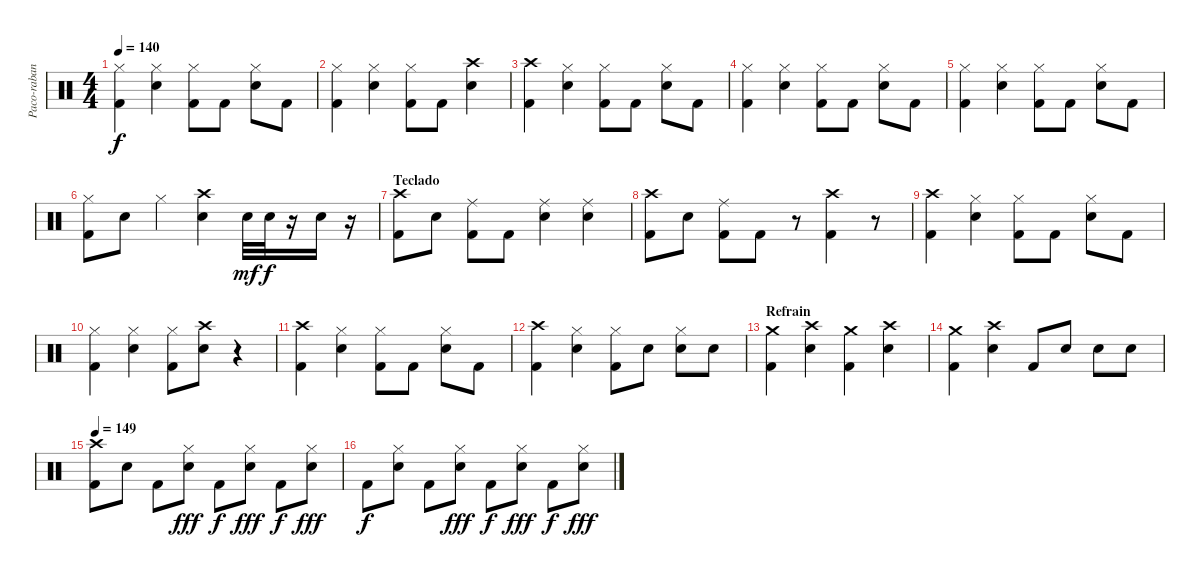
\track ("Paco-rabane" "Paco-raban") {instrument percussion}
\staff {score}
\articulation defaults
\ts (4 4)
\tempo 140
\clef neutral
\ks c
("Hi-Hat (closed)" "Kick (hit) 2").4{dy f} ("Hi-Hat (closed)" "Snare (hit) 2").4 ("Hi-Hat (closed)" "Kick (hit) 2").8 "Kick (hit) 2".8 ("Hi-Hat (closed)" "Snare (hit) 2").8 "Kick (hit) 2".8 |
("Hi-Hat (closed)" "Kick (hit) 2").4 ("Hi-Hat (closed)" "Snare (hit) 2").4 ("Hi-Hat (closed)" "Kick (hit) 2").8 "Kick (hit) 2".8 ("Crash high (hit)" "Snare (hit) 2").4 |
("Crash high (hit)" "Kick (hit) 2").4 ("Hi-Hat (closed)" "Snare (hit) 2").4 ("Hi-Hat (closed)" "Kick (hit) 2").8 "Kick (hit) 2".8 ("Hi-Hat (closed)" "Snare (hit) 2").8 "Kick (hit) 2".8 |
("Hi-Hat (closed)" "Kick (hit) 2").4 ("Hi-Hat (closed)" "Snare (hit) 2").4 ("Hi-Hat (closed)" "Kick (hit) 2").8 "Kick (hit) 2".8 ("Hi-Hat (closed)" "Snare (hit) 2").8 "Kick (hit) 2".8 |
("Hi-Hat (closed)" "Kick (hit) 2").4 ("Hi-Hat (closed)" "Snare (hit) 2").4 ("Hi-Hat (closed)" "Kick (hit) 2").8 "Kick (hit) 2".8 ("Hi-Hat (closed)" "Snare (hit) 2").8 "Kick (hit) 2".8 |
("Hi-Hat (closed)" "Kick (hit) 2").8 "Snare (hit) 2".8 "Hi-Hat (closed)".4 ("Crash high (hit)" "Snare (hit) 2").4 "Snare (hit) 2".32{dy mf} "Snare (hit) 2".32{dy f} r.16 "Snare (hit) 2".16 r.16 |
\section ("" "Teclado")
("Crash high (hit)" "Kick (hit) 2").8 "Snare (hit) 2".8 ("Ride (middle)" "Kick (hit) 2").8 "Kick (hit) 2".8 ("Ride (middle)" "Snare (hit) 2").4 ("Ride (middle)" "Snare (hit) 2").4 |
("Crash high (hit)" "Kick (hit) 2").8 "Snare (hit) 2".8 ("Ride (middle)" "Kick (hit) 2").8 "Kick (hit) 2".8 r.8 ("Crash high (hit)" "Kick (hit) 2").4 r.8 |
("Crash high (hit)" "Kick (hit) 2").4 ("Hi-Hat (closed)" "Snare (hit) 2").4 ("Hi-Hat (closed)" "Kick (hit) 2").8 "Kick (hit) 2".8 ("Hi-Hat (closed)" "Snare (hit) 2").8 "Kick (hit) 2".8 |
("Hi-Hat (closed)" "Kick (hit) 2").4 ("Hi-Hat (closed)" "Snare (hit) 2").4 ("Hi-Hat (closed)" "Kick (hit) 2").8 ("Crash high (hit)" "Snare (hit) 2").8 r.4 |
("Crash high (hit)" "Kick (hit) 2").4 ("Hi-Hat (closed)" "Snare (hit) 2").4 ("Hi-Hat (closed)" "Kick (hit) 2").8 "Kick (hit) 2".8 ("Hi-Hat (closed)" "Snare (hit) 2").8 "Kick (hit) 2".8 |
("Crash high (hit)" "Kick (hit) 2").4 ("Hi-Hat (closed)" "Snare (hit) 2").4 ("Hi-Hat (closed)" "Kick (hit) 2").8 "Snare (hit) 2".8 ("Hi-Hat (closed)" "Snare (hit) 2").8 "Snare (hit) 2".8 |
\section ("" "Refrain")
("Crash medium (hit)" "Kick (hit) 2").4 ("Crash high (hit)" "Snare (hit) 2").4 ("Crash medium (hit)" "Kick (hit) 2").4 ("Crash high (hit)" "Snare (hit) 2").4 |
("Crash medium (hit)" "Kick (hit) 2").4 ("Crash high (hit)" "Snare (hit) 2").4 "Kick (hit) 2".8 "Snare (hit) 2".8 "Snare (hit) 2".8 "Snare (hit) 2".8 |
\tempo 149
("Crash high (hit)" "Kick (hit) 2").8 "Snare (hit) 2".8 "Kick (hit) 2".8 ("Hi-Hat (closed)" "Snare (hit) 2").8{dy fff} "Kick (hit) 2".8{dy f} ("Hi-Hat (closed)" "Snare (hit) 2").8{dy fff} "Kick (hit) 2".8{dy f} ("Hi-Hat (closed)" "Snare (hit) 2").8{dy fff} |
"Kick (hit) 2".8{dy f} ("Hi-Hat (closed)" "Snare (hit) 2").8 "Kick (hit) 2".8 ("Hi-Hat (closed)" "Snare (hit) 2").8{dy fff} "Kick (hit) 2".8{dy f} ("Hi-Hat (closed)" "Snare (hit) 2").8{dy fff} "Kick (hit) 2".8{dy f} ("Hi-Hat (closed)" "Snare (hit) 2").8{dy fff}
